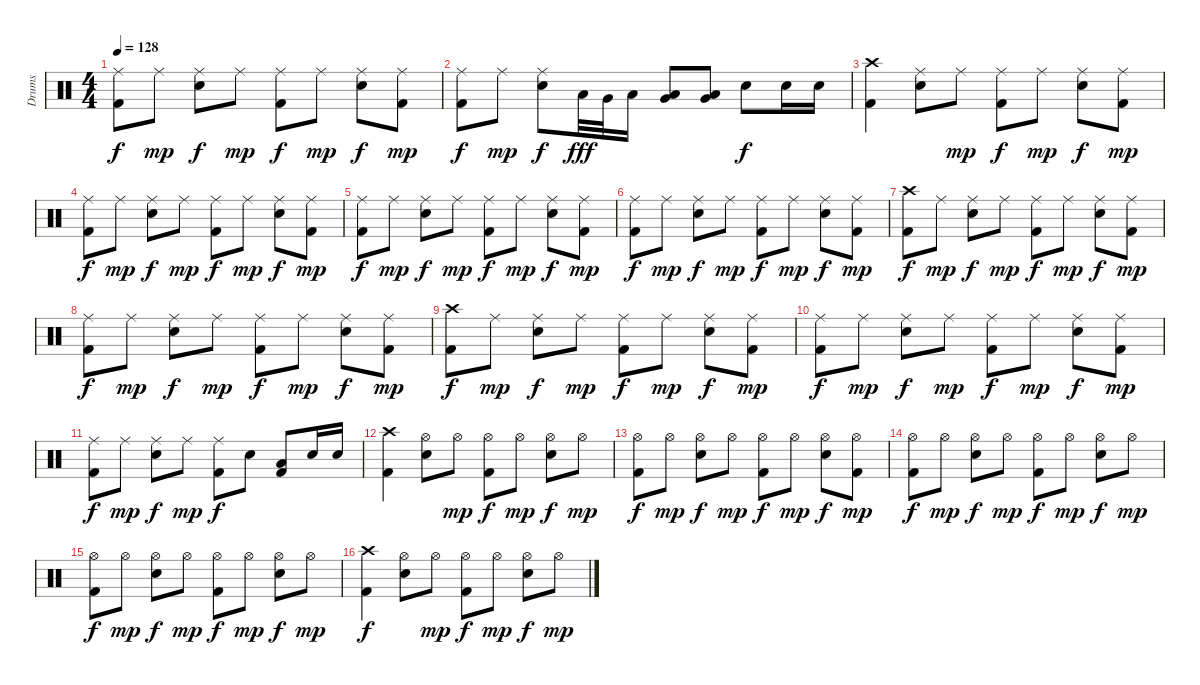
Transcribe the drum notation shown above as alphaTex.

\track ("Drums" "Drums") {instrument percussion}
\staff {score}
\articulation defaults
\ts (4 4)
\tempo 128
\clef neutral
\ks c
("Ride (middle)" "Kick (hit) 2").8{dy f} "Ride (middle)".8{dy mp} ("Ride (middle)" "Snare (hit) 2").8{dy f} "Ride (middle)".8{dy mp} ("Ride (middle)" "Kick (hit) 2").8{dy f} "Ride (middle)".8{dy mp} ("Ride (middle)" "Snare (hit) 2").8{dy f} ("Ride (middle)" "Kick (hit) 2").8{dy mp} |
("Ride (middle)" "Kick (hit) 2").8{dy f} "Ride (middle)".8{dy mp} ("Ride (middle)" "Snare (hit) 2").8{dy f} "Low Tom (hit)".32{dy fff} "Very Low Tom (hit)".32 "Low Tom (hit)".16 ("Low Tom (hit)" "Very Low Tom (hit)").8 ("Low Tom (hit)" "Very Low Tom (hit)").8 "Snare (hit) 2".8{dy f} "Snare (hit) 2".16 "Snare (hit) 2".16 |
("Crash high (hit)" "Kick (hit) 2").4 ("Ride (middle)" "Snare (hit) 2").8 "Ride (middle)".8{dy mp} ("Ride (middle)" "Kick (hit) 2").8{dy f} "Ride (middle)".8{dy mp} ("Ride (middle)" "Snare (hit) 2").8{dy f} ("Ride (middle)" "Kick (hit) 2").8{dy mp} |
("Ride (middle)" "Kick (hit) 2").8{dy f} "Ride (middle)".8{dy mp} ("Ride (middle)" "Snare (hit) 2").8{dy f} "Ride (middle)".8{dy mp} ("Ride (middle)" "Kick (hit) 2").8{dy f} "Ride (middle)".8{dy mp} ("Ride (middle)" "Snare (hit) 2").8{dy f} ("Ride (middle)" "Kick (hit) 2").8{dy mp} |
("Ride (middle)" "Kick (hit) 2").8{dy f} "Ride (middle)".8{dy mp} ("Ride (middle)" "Snare (hit) 2").8{dy f} "Ride (middle)".8{dy mp} ("Ride (middle)" "Kick (hit) 2").8{dy f} "Ride (middle)".8{dy mp} ("Ride (middle)" "Snare (hit) 2").8{dy f} ("Ride (middle)" "Kick (hit) 2").8{dy mp} |
("Ride (middle)" "Kick (hit) 2").8{dy f} "Ride (middle)".8{dy mp} ("Ride (middle)" "Snare (hit) 2").8{dy f} "Ride (middle)".8{dy mp} ("Ride (middle)" "Kick (hit) 2").8{dy f} "Ride (middle)".8{dy mp} ("Ride (middle)" "Snare (hit) 2").8{dy f} ("Ride (middle)" "Kick (hit) 2").8{dy mp} |
("Crash high (hit)" "Kick (hit) 2").8{dy f} "Ride (middle)".8{dy mp} ("Ride (middle)" "Snare (hit) 2").8{dy f} "Ride (middle)".8{dy mp} ("Ride (middle)" "Kick (hit) 2").8{dy f} "Ride (middle)".8{dy mp} ("Ride (middle)" "Snare (hit) 2").8{dy f} ("Ride (middle)" "Kick (hit) 2").8{dy mp} |
("Ride (middle)" "Kick (hit) 2").8{dy f} "Ride (middle)".8{dy mp} ("Ride (middle)" "Snare (hit) 2").8{dy f} "Ride (middle)".8{dy mp} ("Ride (middle)" "Kick (hit) 2").8{dy f} "Ride (middle)".8{dy mp} ("Ride (middle)" "Snare (hit) 2").8{dy f} ("Ride (middle)" "Kick (hit) 2").8{dy mp} |
("Crash high (hit)" "Kick (hit) 2").8{dy f} "Ride (middle)".8{dy mp} ("Ride (middle)" "Snare (hit) 2").8{dy f} "Ride (middle)".8{dy mp} ("Ride (middle)" "Kick (hit) 2").8{dy f} "Ride (middle)".8{dy mp} ("Ride (middle)" "Snare (hit) 2").8{dy f} ("Ride (middle)" "Kick (hit) 2").8{dy mp} |
("Ride (middle)" "Kick (hit) 2").8{dy f} "Ride (middle)".8{dy mp} ("Ride (middle)" "Snare (hit) 2").8{dy f} "Ride (middle)".8{dy mp} ("Ride (middle)" "Kick (hit) 2").8{dy f} "Ride (middle)".8{dy mp} ("Ride (middle)" "Snare (hit) 2").8{dy f} ("Ride (middle)" "Kick (hit) 2").8{dy mp} |
("Ride (middle)" "Kick (hit) 2").8{dy f} "Ride (middle)".8{dy mp} ("Ride (middle)" "Snare (hit) 2").8{dy f} "Ride (middle)".8{dy mp} ("Ride (middle)" "Kick (hit) 2").8{dy f} "Snare (hit) 2".8 ("Low Tom (hit)" "Kick (hit) 2").8 "Snare (hit) 2".16 "Snare (hit) 2".16 |
("Crash high (hit)" "Kick (hit) 2").4 ("Hi-Hat (open)" "Snare (hit) 2").8 "Hi-Hat (open)".8{dy mp} ("Hi-Hat (open)" "Kick (hit) 2").8{dy f} "Hi-Hat (open)".8{dy mp} ("Hi-Hat (open)" "Snare (hit) 2").8{dy f} "Hi-Hat (open)".8{dy mp} |
("Hi-Hat (open)" "Kick (hit) 2").8{dy f} "Hi-Hat (open)".8{dy mp} ("Hi-Hat (open)" "Snare (hit) 2").8{dy f} "Hi-Hat (open)".8{dy mp} ("Hi-Hat (open)" "Kick (hit) 2").8{dy f} "Hi-Hat (open)".8{dy mp} ("Hi-Hat (open)" "Snare (hit) 2").8{dy f} ("Hi-Hat (open)" "Kick (hit) 2").8{dy mp} |
("Hi-Hat (open)" "Kick (hit) 2").8{dy f} "Hi-Hat (open)".8{dy mp} ("Hi-Hat (open)" "Snare (hit) 2").8{dy f} "Hi-Hat (open)".8{dy mp} ("Hi-Hat (open)" "Kick (hit) 2").8{dy f} "Hi-Hat (open)".8{dy mp} ("Hi-Hat (open)" "Snare (hit) 2").8{dy f} "Hi-Hat (open)".8{dy mp} |
("Hi-Hat (open)" "Kick (hit) 2").8{dy f} "Hi-Hat (open)".8{dy mp} ("Hi-Hat (open)" "Snare (hit) 2").8{dy f} "Hi-Hat (open)".8{dy mp} ("Hi-Hat (open)" "Kick (hit) 2").8{dy f} "Hi-Hat (open)".8{dy mp} ("Hi-Hat (open)" "Snare (hit) 2").8{dy f} "Hi-Hat (open)".8{dy mp} |
("Crash high (hit)" "Kick (hit) 2").4{dy f} ("Hi-Hat (open)" "Snare (hit) 2").8 "Hi-Hat (open)".8{dy mp} ("Hi-Hat (open)" "Kick (hit) 2").8{dy f} "Hi-Hat (open)".8{dy mp} ("Hi-Hat (open)" "Snare (hit) 2").8{dy f} "Hi-Hat (open)".8{dy mp}
